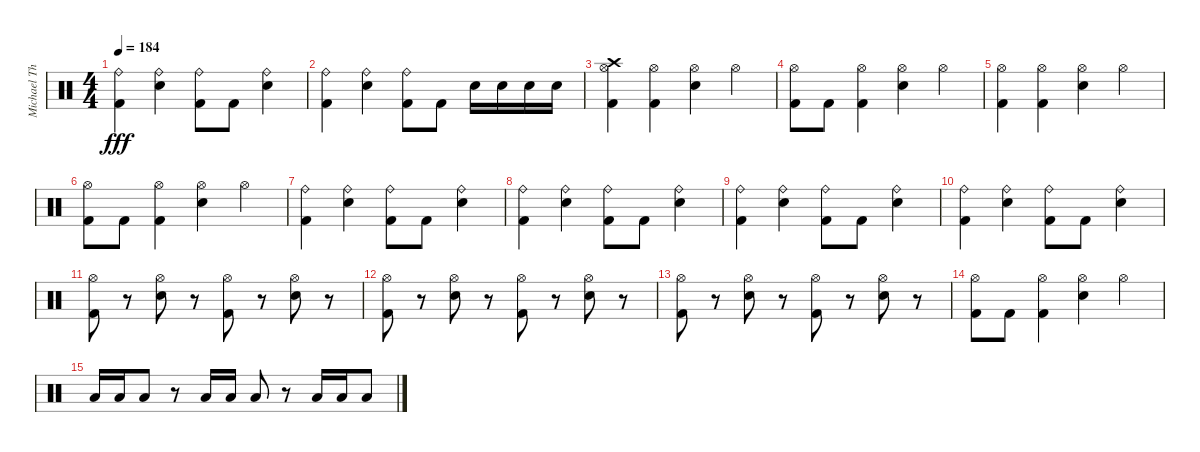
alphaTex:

\track ("Michael Thomas - Drums" "Michael Th") {instrument percussion}
\staff {score}
\articulation defaults
\ts (4 4)
\tempo 184
\clef neutral
\ks c
("Ride (bell)" "Kick (hit) 2").4{dy fff} ("Ride (bell)" "Snare (hit) 2").4 ("Ride (bell)" "Kick (hit) 2").8 "Kick (hit) 2".8 ("Ride (bell)" "Snare (hit) 2").4 |
("Ride (bell)" "Kick (hit) 2").4 ("Ride (bell)" "Snare (hit) 2").4 ("Ride (bell)" "Kick (hit) 2").8 "Kick (hit) 2".8 "Snare (hit) 2".16 "Snare (hit) 2".16 "Snare (hit) 2".16 "Snare (hit) 2".16 |
("Crash high (hit)" "Hi-Hat (open)" "Kick (hit) 2").4 ("Hi-Hat (open)" "Kick (hit) 2").4 ("Hi-Hat (open)" "Snare (hit) 2").4 "Hi-Hat (open)".4 |
("Hi-Hat (open)" "Kick (hit) 2").8 "Kick (hit) 2".8 ("Hi-Hat (open)" "Kick (hit) 2").4 ("Hi-Hat (open)" "Snare (hit) 2").4 "Hi-Hat (open)".4 |
("Hi-Hat (open)" "Kick (hit) 2").4 ("Hi-Hat (open)" "Kick (hit) 2").4 ("Hi-Hat (open)" "Snare (hit) 2").4 "Hi-Hat (open)".4 |
("Hi-Hat (open)" "Kick (hit) 2").8 "Kick (hit) 2".8 ("Hi-Hat (open)" "Kick (hit) 2").4 ("Hi-Hat (open)" "Snare (hit) 2").4 "Hi-Hat (open)".4 |
("Ride (bell)" "Kick (hit) 2").4 ("Ride (bell)" "Snare (hit) 2").4 ("Ride (bell)" "Kick (hit) 2").8 "Kick (hit) 2".8 ("Ride (bell)" "Snare (hit) 2").4 |
("Ride (bell)" "Kick (hit) 2").4 ("Ride (bell)" "Snare (hit) 2").4 ("Ride (bell)" "Kick (hit) 2").8 "Kick (hit) 2".8 ("Ride (bell)" "Snare (hit) 2").4 |
("Ride (bell)" "Kick (hit) 2").4 ("Ride (bell)" "Snare (hit) 2").4 ("Ride (bell)" "Kick (hit) 2").8 "Kick (hit) 2".8 ("Ride (bell)" "Snare (hit) 2").4 |
("Ride (bell)" "Kick (hit) 2").4 ("Ride (bell)" "Snare (hit) 2").4 ("Ride (bell)" "Kick (hit) 2").8 "Kick (hit) 2".8 ("Ride (bell)" "Snare (hit) 2").4 |
("Hi-Hat (open)" "Kick (hit) 2").8 r.8 ("Hi-Hat (open)" "Snare (hit) 2").8 r.8 ("Hi-Hat (open)" "Kick (hit) 2").8 r.8 ("Hi-Hat (open)" "Snare (hit) 2").8 r.8 |
("Hi-Hat (open)" "Kick (hit) 2").8 r.8 ("Hi-Hat (open)" "Snare (hit) 2").8 r.8 ("Hi-Hat (open)" "Kick (hit) 2").8 r.8 ("Hi-Hat (open)" "Snare (hit) 2").8 r.8 |
("Hi-Hat (open)" "Kick (hit) 2").8 r.8 ("Hi-Hat (open)" "Snare (hit) 2").8 r.8 ("Hi-Hat (open)" "Kick (hit) 2").8 r.8 ("Hi-Hat (open)" "Snare (hit) 2").8 r.8 |
("Hi-Hat (open)" "Kick (hit) 2").8 "Kick (hit) 2".8 ("Hi-Hat (open)" "Kick (hit) 2").4 ("Hi-Hat (open)" "Snare (hit) 2").4 "Hi-Hat (open)".4 |
"Low Floor Tom (hit)".16 "Low Floor Tom (hit)".16 "Low Floor Tom (hit)".8 r.8 "Low Floor Tom (hit)".16 "Low Floor Tom (hit)".16 "Low Floor Tom (hit)".8 r.8 "Low Floor Tom (hit)".16 "Low Floor Tom (hit)".16 "Low Floor Tom (hit)".8
